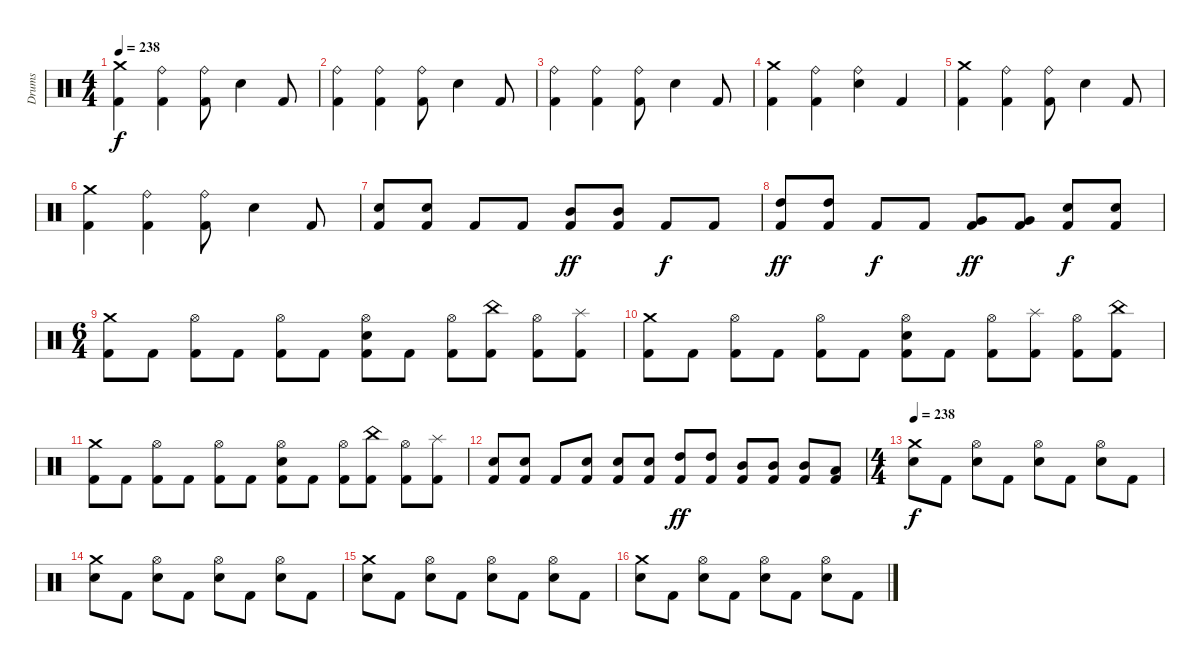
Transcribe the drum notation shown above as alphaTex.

\track ("Drums" "Drums") {instrument percussion}
\staff {score}
\articulation defaults
\ts (4 4)
\tempo 238
\clef neutral
\ks c
("Crash medium (hit)" "Kick (hit) 2").4{dy f} ("Ride (bell)" "Kick (hit) 2").4 ("Ride (bell)" "Kick (hit) 2").8 "Electric Snare (hit)".4 "Kick (hit) 2".8 |
("Ride (bell)" "Kick (hit) 2").4 ("Ride (bell)" "Kick (hit) 2").4 ("Ride (bell)" "Kick (hit) 2").8 "Electric Snare (hit)".4 "Kick (hit) 2".8 |
("Ride (bell)" "Kick (hit) 2").4 ("Ride (bell)" "Kick (hit) 2").4 ("Ride (bell)" "Kick (hit) 2").8 "Electric Snare (hit)".4 "Kick (hit) 2".8 |
("Crash medium (hit)" "Kick (hit) 2").4 ("Ride (bell)" "Kick (hit) 2").4 ("Ride (bell)" "Electric Snare (hit)").4 "Kick (hit) 2".4 |
("Crash medium (hit)" "Kick (hit) 2").4 ("Ride (bell)" "Kick (hit) 2").4 ("Ride (bell)" "Kick (hit) 2").8 "Electric Snare (hit)".4 "Kick (hit) 2".8 |
("Crash medium (hit)" "Kick (hit) 2").4 ("Ride (bell)" "Kick (hit) 2").4 ("Ride (bell)" "Kick (hit) 2").8 "Electric Snare (hit)".4 "Kick (hit) 2".8 |
("Electric Snare (hit)" "Kick (hit) 2").8 ("Electric Snare (hit)" "Kick (hit) 2").8 "Kick (hit) 2".8 "Kick (hit) 2".8 ("Mid Tom (hit)" "Kick (hit) 2").8{dy ff} ("Mid Tom (hit)" "Kick (hit) 2").8 "Kick (hit) 2".8{dy f} "Kick (hit) 2".8 |
("High Tom (hit)" "Kick (hit) 2").8{dy ff} ("High Tom (hit)" "Kick (hit) 2").8 "Kick (hit) 2".8{dy f} "Kick (hit) 2".8 ("Very Low Tom (hit)" "Kick (hit) 2").8{dy ff} ("Very Low Tom (hit)" "Kick (hit) 2").8 ("Electric Snare (hit)" "Kick (hit) 2").8{dy f} ("Electric Snare (hit)" "Kick (hit) 2").8 |
\ts (6 4)
("Crash medium (hit)" "Kick (hit) 2").8 "Kick (hit) 2".8 ("Hi-Hat (open)" "Kick (hit) 2").8 "Kick (hit) 2".8 ("Hi-Hat (open)" "Kick (hit) 2").8 "Kick (hit) 2".8 ("Hi-Hat (open)" "Electric Snare (hit)" "Kick (hit) 2").8 "Kick (hit) 2".8 ("Hi-Hat (open)" "Kick (hit) 2").8 ("China (hit)" "Kick (hit) 2").8 ("Hi-Hat (open)" "Kick (hit) 2").8 ("Splash (hit)" "Kick (hit) 2").8 |
("Crash medium (hit)" "Kick (hit) 2").8 "Kick (hit) 2".8 ("Hi-Hat (open)" "Kick (hit) 2").8 "Kick (hit) 2".8 ("Hi-Hat (open)" "Kick (hit) 2").8 "Kick (hit) 2".8 ("Hi-Hat (open)" "Electric Snare (hit)" "Kick (hit) 2").8 "Kick (hit) 2".8 ("Hi-Hat (open)" "Kick (hit) 2").8 ("Splash (hit)" "Kick (hit) 2").8 ("Hi-Hat (open)" "Kick (hit) 2").8 ("China (hit)" "Kick (hit) 2").8 |
("Crash medium (hit)" "Kick (hit) 2").8 "Kick (hit) 2".8 ("Hi-Hat (open)" "Kick (hit) 2").8 "Kick (hit) 2".8 ("Hi-Hat (open)" "Kick (hit) 2").8 "Kick (hit) 2".8 ("Hi-Hat (open)" "Electric Snare (hit)" "Kick (hit) 2").8 "Kick (hit) 2".8 ("Hi-Hat (open)" "Kick (hit) 2").8 ("China (hit)" "Kick (hit) 2").8 ("Hi-Hat (open)" "Kick (hit) 2").8 ("Splash (hit)" "Kick (hit) 2").8 |
("Electric Snare (hit)" "Kick (hit) 2").8 ("Electric Snare (hit)" "Kick (hit) 2").8 "Kick (hit) 2".8 ("Electric Snare (hit)" "Kick (hit) 2").8 ("Electric Snare (hit)" "Kick (hit) 2").8 ("Electric Snare (hit)" "Kick (hit) 2").8 ("High Tom (hit)" "Kick (hit) 2").8{dy ff} ("High Tom (hit)" "Kick (hit) 2").8 ("Mid Tom (hit)" "Kick (hit) 2").8 ("Mid Tom (hit)" "Kick (hit) 2").8 ("Mid Tom (hit)" "Kick (hit) 2").8 ("Low Tom (hit)" "Kick (hit) 2").8 |
\ts (4 4)
\tempo 238
("Crash medium (hit)" "Electric Snare (hit)").8{dy f} "Kick (hit) 2".8 ("Hi-Hat (open)" "Electric Snare (hit)").8 "Kick (hit) 2".8 ("Hi-Hat (open)" "Electric Snare (hit)").8 "Kick (hit) 2".8 ("Hi-Hat (open)" "Electric Snare (hit)").8 "Kick (hit) 2".8 |
("Crash medium (hit)" "Electric Snare (hit)").8 "Kick (hit) 2".8 ("Hi-Hat (open)" "Electric Snare (hit)").8 "Kick (hit) 2".8 ("Hi-Hat (open)" "Electric Snare (hit)").8 "Kick (hit) 2".8 ("Hi-Hat (open)" "Electric Snare (hit)").8 "Kick (hit) 2".8 |
("Crash medium (hit)" "Electric Snare (hit)").8 "Kick (hit) 2".8 ("Hi-Hat (open)" "Electric Snare (hit)").8 "Kick (hit) 2".8 ("Hi-Hat (open)" "Electric Snare (hit)").8 "Kick (hit) 2".8 ("Hi-Hat (open)" "Electric Snare (hit)").8 "Kick (hit) 2".8 |
("Crash medium (hit)" "Electric Snare (hit)").8 "Kick (hit) 2".8 ("Hi-Hat (open)" "Electric Snare (hit)").8 "Kick (hit) 2".8 ("Hi-Hat (open)" "Electric Snare (hit)").8 "Kick (hit) 2".8 ("Hi-Hat (open)" "Electric Snare (hit)").8 "Kick (hit) 2".8
